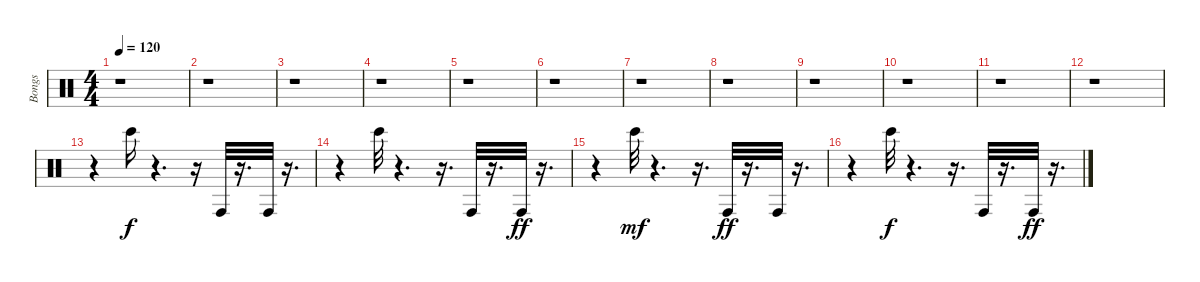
\track ("Bongs" "Bongs") {instrument percussion}
\staff {score}
\articulation defaults
\ts (4 4)
\tempo 120
\clef neutral
\ks c
r.1{dy ff} |
r.1 |
r.1 |
r.1 |
r.1 |
r.1 |
r.1 |
r.1 |
r.1 |
r.1 |
r.1 |
r.1 |
r.4 "Bongo High (hit)".16{dy f} r.4{d} r.16 "Conga high (hit)".32 r.16{d} "Conga high (hit)".32 r.16{d} |
r.4 "Bongo High (hit)".32 r.4{d} r.16{d} "Conga high (hit)".32 r.16{d} "Conga high (hit)".32{dy ff} r.16{d} |
r.4 "Bongo High (hit)".32{dy mf} r.4{d} r.16{d} "Conga high (hit)".32{dy ff} r.16{d} "Conga high (hit)".32 r.16{d} |
r.4 "Bongo High (hit)".32{dy f} r.4{d} r.16{d} "Conga high (hit)".32 r.16{d} "Conga high (hit)".32{dy ff} r.16{d}
